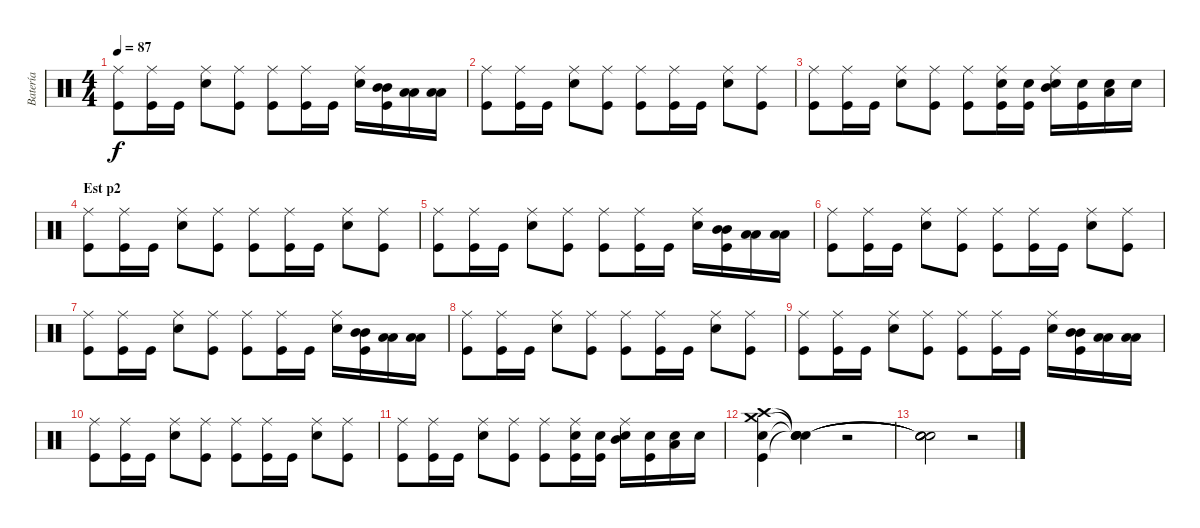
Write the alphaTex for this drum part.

\track ("Batería" "Batería") {instrument percussion}
\staff {score}
\articulation defaults
\ts (4 4)
\tempo 87
\clef neutral
\ks c
("Ride (middle)" "Kick (hit)").8{dy f} ("Ride (middle)" "Kick (hit)").16 "Kick (hit)".16 ("Ride (middle)" "Snare (hit) 2").8 ("Ride (middle)" "Kick (hit)").8 ("Ride (middle)" "Kick (hit)").8 ("Ride (middle)" "Kick (hit)").16 "Kick (hit)".16 ("Ride (middle)" "Snare (hit) 2").16 ("Mid Tom (hit)" "Mid Tom (hit)" "Kick (hit)").16 ("Low Tom (hit)" "Low Tom (hit)").16 ("Low Floor Tom (hit)" "Low Floor Tom (hit)").16 |
("Ride (middle)" "Kick (hit)").8 ("Ride (middle)" "Kick (hit)").16 "Kick (hit)".16 ("Ride (middle)" "Snare (hit) 2").8 ("Ride (middle)" "Kick (hit)").8 ("Ride (middle)" "Kick (hit)").8 ("Ride (middle)" "Kick (hit)").16 "Kick (hit)".16 ("Ride (middle)" "Snare (hit) 2").8 ("Ride (middle)" "Kick (hit)").8 |
("Ride (middle)" "Kick (hit)").8 ("Ride (middle)" "Kick (hit)").16 "Kick (hit)".16 ("Ride (middle)" "Snare (hit) 2").8 ("Ride (middle)" "Kick (hit)").8 ("Ride (middle)" "Kick (hit)").8 ("Ride (middle)" "Snare (hit) 2" "Kick (hit)").16 ("Snare (hit) 2" "Kick (hit)").16 ("Mid Tom (hit)" "Ride (middle)" "Snare (hit) 2").16 ("Snare (hit) 2" "Kick (hit)").16 ("Low Floor Tom (hit)" "Snare (hit) 2").16 "Snare (hit) 2".16 |
\section ("" "Est p2")
("Ride (middle)" "Kick (hit)").8 ("Ride (middle)" "Kick (hit)").16 "Kick (hit)".16 ("Ride (middle)" "Snare (hit) 2").8 ("Ride (middle)" "Kick (hit)").8 ("Ride (middle)" "Kick (hit)").8 ("Ride (middle)" "Kick (hit)").16 "Kick (hit)".16 ("Ride (middle)" "Snare (hit) 2").8 ("Ride (middle)" "Kick (hit)").8 |
("Ride (middle)" "Kick (hit)").8 ("Ride (middle)" "Kick (hit)").16 "Kick (hit)".16 ("Ride (middle)" "Snare (hit) 2").8 ("Ride (middle)" "Kick (hit)").8 ("Ride (middle)" "Kick (hit)").8 ("Ride (middle)" "Kick (hit)").16 "Kick (hit)".16 ("Ride (middle)" "Snare (hit) 2").16 ("Mid Tom (hit)" "Mid Tom (hit)" "Kick (hit)").16 ("Low Tom (hit)" "Low Tom (hit)").16 ("Low Floor Tom (hit)" "Low Floor Tom (hit)").16 |
("Ride (middle)" "Kick (hit)").8 ("Ride (middle)" "Kick (hit)").16 "Kick (hit)".16 ("Ride (middle)" "Snare (hit) 2").8 ("Ride (middle)" "Kick (hit)").8 ("Ride (middle)" "Kick (hit)").8 ("Ride (middle)" "Kick (hit)").16 "Kick (hit)".16 ("Ride (middle)" "Snare (hit) 2").8 ("Ride (middle)" "Kick (hit)").8 |
("Ride (middle)" "Kick (hit)").8 ("Ride (middle)" "Kick (hit)").16 "Kick (hit)".16 ("Ride (middle)" "Snare (hit) 2").8 ("Ride (middle)" "Kick (hit)").8 ("Ride (middle)" "Kick (hit)").8 ("Ride (middle)" "Kick (hit)").16 "Kick (hit)".16 ("Ride (middle)" "Snare (hit) 2").16 ("Mid Tom (hit)" "Mid Tom (hit)" "Kick (hit)").16 ("Low Tom (hit)" "Low Tom (hit)").16 ("Low Floor Tom (hit)" "Low Floor Tom (hit)").16 |
("Ride (middle)" "Kick (hit)").8 ("Ride (middle)" "Kick (hit)").16 "Kick (hit)".16 ("Ride (middle)" "Snare (hit) 2").8 ("Ride (middle)" "Kick (hit)").8 ("Ride (middle)" "Kick (hit)").8 ("Ride (middle)" "Kick (hit)").16 "Kick (hit)".16 ("Ride (middle)" "Snare (hit) 2").8 ("Ride (middle)" "Kick (hit)").8 |
("Ride (middle)" "Kick (hit)").8 ("Ride (middle)" "Kick (hit)").16 "Kick (hit)".16 ("Ride (middle)" "Snare (hit) 2").8 ("Ride (middle)" "Kick (hit)").8 ("Ride (middle)" "Kick (hit)").8 ("Ride (middle)" "Kick (hit)").16 "Kick (hit)".16 ("Ride (middle)" "Snare (hit) 2").16 ("Mid Tom (hit)" "Mid Tom (hit)" "Kick (hit)").16 ("Low Tom (hit)" "Low Tom (hit)").16 ("Low Floor Tom (hit)" "Low Floor Tom (hit)").16 |
("Ride (middle)" "Kick (hit)").8 ("Ride (middle)" "Kick (hit)").16 "Kick (hit)".16 ("Ride (middle)" "Snare (hit) 2").8 ("Ride (middle)" "Kick (hit)").8 ("Ride (middle)" "Kick (hit)").8 ("Ride (middle)" "Kick (hit)").16 "Kick (hit)".16 ("Ride (middle)" "Snare (hit) 2").8 ("Ride (middle)" "Kick (hit)").8 |
("Ride (middle)" "Kick (hit)").8 ("Ride (middle)" "Kick (hit)").16 "Kick (hit)".16 ("Ride (middle)" "Snare (hit) 2").8 ("Ride (middle)" "Kick (hit)").8 ("Ride (middle)" "Kick (hit)").8 ("Ride (middle)" "Snare (hit) 2" "Kick (hit)").16 ("Snare (hit) 2" "Kick (hit)").16 ("Mid Tom (hit)" "Ride (middle)" "Snare (hit) 2").16 ("Snare (hit) 2" "Kick (hit)").16 ("Low Floor Tom (hit)" "Snare (hit) 2").16 "Snare (hit) 2".16 |
("Crash medium (hit)" "Crash high (hit)" "Snare (hit) 2" "Kick (hit)").4 ("Snare (hit)"{t} "Snare (hit)"{t} "Snare (hit)"{t} "Snare (hit)"{t}).4 r.2 |
("Snare (hit)"{t} "Snare (hit)"{t} "Snare (hit)"{t} "Snare (hit)"{t}).2 r.2
